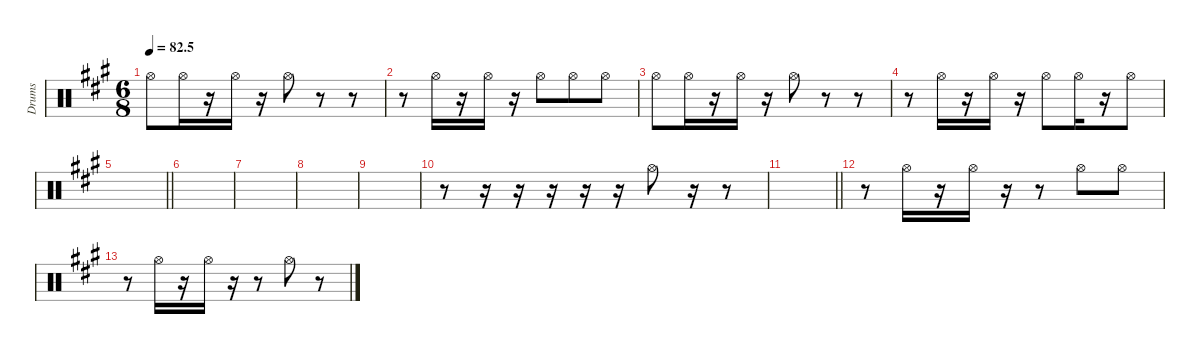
\defaultSystemsLayout 4
\hideDynamics
\bracketExtendMode nobrackets
\otherSystemsTrackNameOrientation horizontal
\track ("Hihat" "Drums") {instrument percussion}
\staff {score}
\articulation defaults
\ts (6 8)
\tempo
82.5
\accidentals auto
\clef neutral
\ottava regular
\simile none
\scale
0.333333
\ks a "Hi-Hat (open)"{acc forcenatural}.8{dy f} "Hi-Hat (open)"{acc forcenatural}.16
r.16 "Hi-Hat (open)"{acc forcenatural}.16 r.16 "Hi-Hat (open)"{acc forcenatural}.8 r.8 r.8 |
\scale
0.333333 r.8 "Hi-Hat (open)"{acc forcenatural}.16 r.16 "Hi-Hat (open)"{acc forcenatural}.16 r.16 "Hi-Hat (open)"{acc forcenatural}.8 "Hi-Hat (open)"{acc forcenatural}.8 "Hi-Hat (open)"{acc forcenatural}.8 |
\scale
0.333333 "Hi-Hat (open)"{acc forcenatural}.8 "Hi-Hat (open)"{acc forcenatural}.16 r.16 "Hi-Hat (open)"{acc forcenatural}.16 r.16 "Hi-Hat (open)"{acc forcenatural}.8 r.8 r.8 |
\scale
0.333333 r.8 "Hi-Hat (open)"{acc forcenatural}.16 r.16 "Hi-Hat (open)"{acc forcenatural}.16 r.16 "Hi-Hat (open)"{acc forcenatural}.8 "Hi-Hat (open)"{acc forcenatural}.16 r.16 "Hi-Hat (open)"{acc forcenatural}.8 |
\scale
0.333333
\barLineRight lightlight
|
\scale
0.333333 |
\scale
0.333333 |
\scale
0.333333 |
\scale
0.333333 |
\scale
0.333333 r.8 r.16 r.16 r.16 r.16 r.16 "Hi-Hat (open)"{acc forcenatural}.8 r.16 r.8 |
\scale
0.333333
\barLineRight lightlight
|
\scale
0.333333 r.8 "Hi-Hat (open)"{acc forcenatural}.16 r.16 "Hi-Hat (open)"{acc forcenatural}.16 r.16 r.8 "Hi-Hat (open)"{acc forcenatural}.8 "Hi-Hat (open)"{acc forcenatural}.8 |
\scale
0.333333 r.8 "Hi-Hat (open)"{acc forcenatural}.16 r.16 "Hi-Hat (open)"{acc forcenatural}.16 r.16 r.8 "Hi-Hat (open)"{acc forcenatural}.8 r.8 |
\scale
0.333333 |
\scale
0.333333 |
\scale
0.333333
